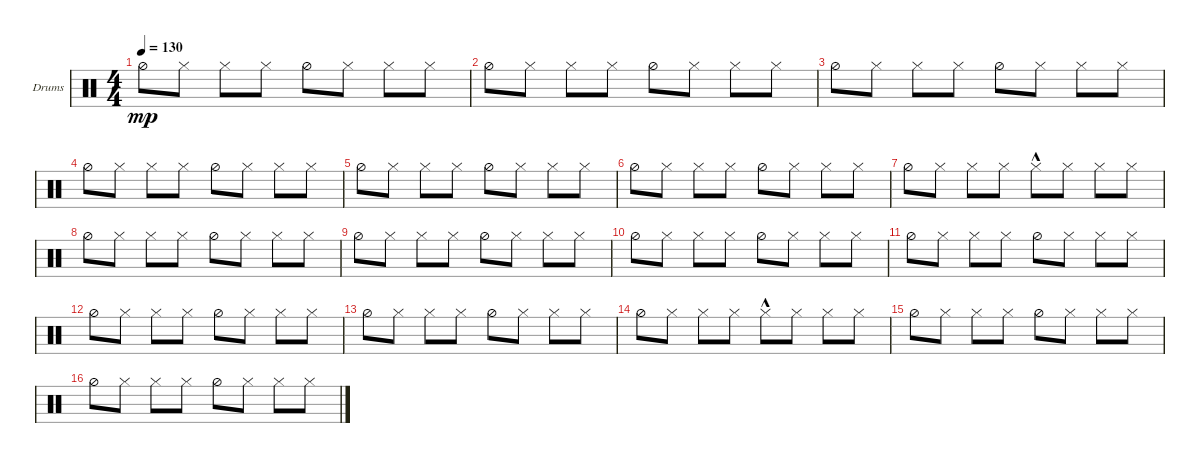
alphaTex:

\defaultSystemsLayout 4
\bracketExtendMode groupsimilarinstruments
\firstSystemTrackNameOrientation horizontal
\otherSystemsTrackNameOrientation horizontal
\track ("Drumkit" "Drums") {instrument percussion}
\staff {score}
\articulation defaults
\ts (4 4)
\tempo 130
\clef neutral
\ks c "Hi-Hat (half)".8{dy mp} "Hi-Hat (closed)".8 "Hi-Hat (closed)".8 "Hi-Hat (closed)".8 "Hi-Hat (half)".8 "Hi-Hat (closed)".8 "Hi-Hat (closed)".8 "Hi-Hat (closed)".8
|
"Hi-Hat (half)".8 "Hi-Hat (closed)".8 "Hi-Hat (closed)".8 "Hi-Hat (closed)".8 "Hi-Hat (half)".8 "Hi-Hat (closed)".8 "Hi-Hat (closed)".8 "Hi-Hat (closed)".8 |
"Hi-Hat (half)".8 "Hi-Hat (closed)".8 "Hi-Hat (closed)".8 "Hi-Hat (closed)".8 "Hi-Hat (half)".8 "Hi-Hat (closed)".8 "Hi-Hat (closed)".8 "Hi-Hat (closed)".8 |
"Hi-Hat (half)".8 "Hi-Hat (closed)".8 "Hi-Hat (closed)".8 "Hi-Hat (closed)".8 "Hi-Hat (half)".8 "Hi-Hat (closed)".8 "Hi-Hat (closed)".8 "Hi-Hat (closed)".8 |
"Hi-Hat (half)".8 "Hi-Hat (closed)".8 "Hi-Hat (closed)".8 "Hi-Hat (closed)".8 "Hi-Hat (half)".8 "Hi-Hat (closed)".8 "Hi-Hat (closed)".8 "Hi-Hat (closed)".8 |
"Hi-Hat (half)".8 "Hi-Hat (closed)".8 "Hi-Hat (closed)".8 "Hi-Hat (closed)".8 "Hi-Hat (half)".8 "Hi-Hat (closed)".8 "Hi-Hat (closed)".8 "Hi-Hat (closed)".8 |
"Hi-Hat (half)".8 "Hi-Hat (closed)".8 "Hi-Hat (closed)".8 "Hi-Hat (closed)".8 "Hi-Hat (closed)"{hac}.8 "Hi-Hat (closed)".8 "Hi-Hat (closed)".8 "Hi-Hat (closed)".8 |
"Hi-Hat (half)".8 "Hi-Hat (closed)".8 "Hi-Hat (closed)".8 "Hi-Hat (closed)".8 "Hi-Hat (half)".8 "Hi-Hat (closed)".8 "Hi-Hat (closed)".8 "Hi-Hat (closed)".8 |
"Hi-Hat (half)".8 "Hi-Hat (closed)".8 "Hi-Hat (closed)".8 "Hi-Hat (closed)".8 "Hi-Hat (half)".8 "Hi-Hat (closed)".8 "Hi-Hat (closed)".8 "Hi-Hat (closed)".8 |
"Hi-Hat (half)".8 "Hi-Hat (closed)".8 "Hi-Hat (closed)".8 "Hi-Hat (closed)".8 "Hi-Hat (half)".8 "Hi-Hat (closed)".8 "Hi-Hat (closed)".8 "Hi-Hat (closed)".8 |
"Hi-Hat (half)".8 "Hi-Hat (closed)".8 "Hi-Hat (closed)".8 "Hi-Hat (closed)".8 "Hi-Hat (half)".8 "Hi-Hat (closed)".8 "Hi-Hat (closed)".8 "Hi-Hat (closed)".8 |
"Hi-Hat (half)".8 "Hi-Hat (closed)".8 "Hi-Hat (closed)".8 "Hi-Hat (closed)".8 "Hi-Hat (half)".8 "Hi-Hat (closed)".8 "Hi-Hat (closed)".8 "Hi-Hat (closed)".8 |
"Hi-Hat (half)".8 "Hi-Hat (closed)".8 "Hi-Hat (closed)".8 "Hi-Hat (closed)".8 "Hi-Hat (half)".8 "Hi-Hat (closed)".8 "Hi-Hat (closed)".8 "Hi-Hat (closed)".8 |
"Hi-Hat (half)".8 "Hi-Hat (closed)".8 "Hi-Hat (closed)".8 "Hi-Hat (closed)".8 "Hi-Hat (closed)"{hac}.8 "Hi-Hat (closed)".8 "Hi-Hat (closed)".8 "Hi-Hat (closed)".8 |
"Hi-Hat (half)".8 "Hi-Hat (closed)".8 "Hi-Hat (closed)".8 "Hi-Hat (closed)".8 "Hi-Hat (half)".8 "Hi-Hat (closed)".8 "Hi-Hat (closed)".8 "Hi-Hat (closed)".8 |
"Hi-Hat (half)".8 "Hi-Hat (closed)".8 "Hi-Hat (closed)".8 "Hi-Hat (closed)".8 "Hi-Hat (half)".8 "Hi-Hat (closed)".8 "Hi-Hat (closed)".8 "Hi-Hat (closed)".8
